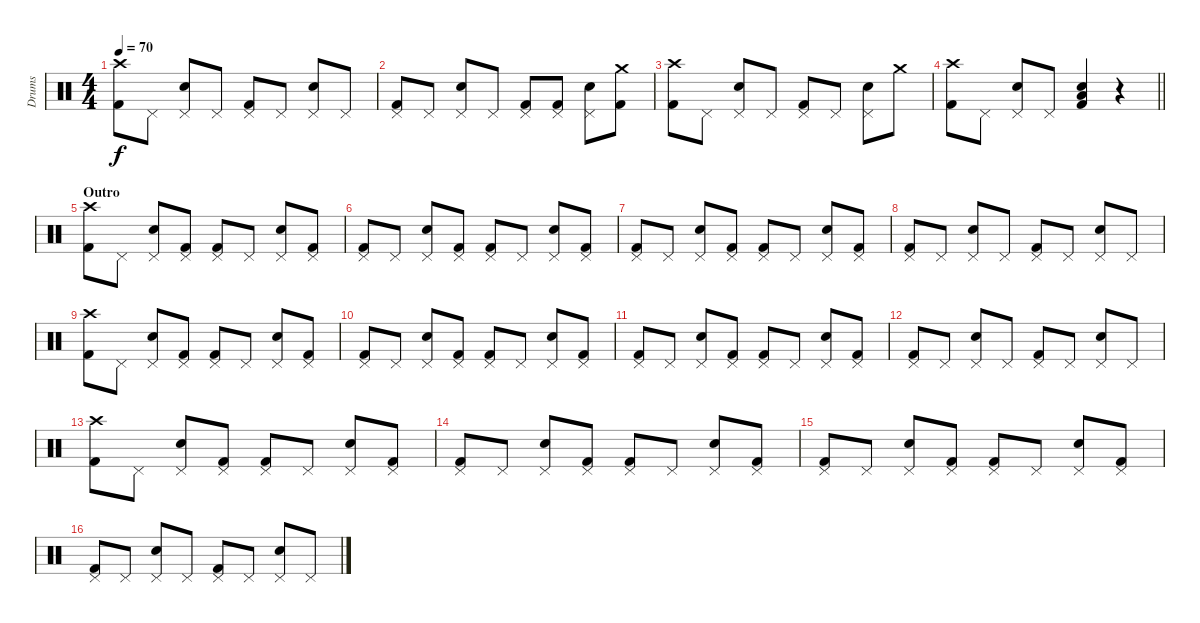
\track ("Drums" "Drums") {instrument percussion}
\staff {score}
\articulation defaults
\ts (4 4)
\tempo 70
\clef neutral
\ks c
("Crash high (hit)" "Kick (hit) 2").8{dy f} "Pedal Hi-Hat (hit)".8 ("Pedal Hi-Hat (hit)" "Snare (hit) 2").8 "Pedal Hi-Hat (hit)".8 ("Pedal Hi-Hat (hit)" "Kick (hit) 2").8 "Pedal Hi-Hat (hit)".8 ("Pedal Hi-Hat (hit)" "Snare (hit) 2").8 "Pedal Hi-Hat (hit)".8 |
("Pedal Hi-Hat (hit)" "Kick (hit) 2").8 "Pedal Hi-Hat (hit)".8 ("Pedal Hi-Hat (hit)" "Snare (hit) 2").8 "Pedal Hi-Hat (hit)".8 ("Pedal Hi-Hat (hit)" "Kick (hit) 2").8 ("Pedal Hi-Hat (hit)" "Kick (hit) 2").8 ("Pedal Hi-Hat (hit)" "Snare (hit) 2").8 ("Crash medium (hit)" "Kick (hit) 2").8 |
("Crash high (hit)" "Kick (hit) 2").8 "Pedal Hi-Hat (hit)".8 ("Pedal Hi-Hat (hit)" "Snare (hit) 2").8 "Pedal Hi-Hat (hit)".8 ("Pedal Hi-Hat (hit)" "Kick (hit) 2").8 "Pedal Hi-Hat (hit)".8 ("Pedal Hi-Hat (hit)" "Snare (hit) 2").8 "Crash medium (hit)".8 |
\barLineRight lightlight
("Crash high (hit)" "Kick (hit) 2").8 "Pedal Hi-Hat (hit)".8 ("Pedal Hi-Hat (hit)" "Snare (hit) 2").8 "Pedal Hi-Hat (hit)".8 ("Snare (hit) 2" "Low Floor Tom (hit)" "Kick (hit) 2").4 r.4 |
\section ("" "Outro")
("Crash high (hit)" "Kick (hit) 2").8 "Pedal Hi-Hat (hit)".8 ("Pedal Hi-Hat (hit)" "Snare (hit) 2").8 ("Pedal Hi-Hat (hit)" "Kick (hit) 2").8 ("Pedal Hi-Hat (hit)" "Kick (hit) 2").8 "Pedal Hi-Hat (hit)".8 ("Pedal Hi-Hat (hit)" "Snare (hit) 2").8 ("Pedal Hi-Hat (hit)" "Kick (hit) 2").8 |
("Pedal Hi-Hat (hit)" "Kick (hit) 2").8 "Pedal Hi-Hat (hit)".8 ("Pedal Hi-Hat (hit)" "Snare (hit) 2").8 ("Pedal Hi-Hat (hit)" "Kick (hit) 2").8 ("Pedal Hi-Hat (hit)" "Kick (hit) 2").8 "Pedal Hi-Hat (hit)".8 ("Pedal Hi-Hat (hit)" "Snare (hit) 2").8 ("Pedal Hi-Hat (hit)" "Kick (hit) 2").8 |
("Pedal Hi-Hat (hit)" "Kick (hit) 2").8 "Pedal Hi-Hat (hit)".8 ("Pedal Hi-Hat (hit)" "Snare (hit) 2").8 ("Pedal Hi-Hat (hit)" "Kick (hit) 2").8 ("Pedal Hi-Hat (hit)" "Kick (hit) 2").8 "Pedal Hi-Hat (hit)".8 ("Pedal Hi-Hat (hit)" "Snare (hit) 2").8 ("Pedal Hi-Hat (hit)" "Kick (hit) 2").8 |
("Pedal Hi-Hat (hit)" "Kick (hit) 2").8 "Pedal Hi-Hat (hit)".8 ("Pedal Hi-Hat (hit)" "Snare (hit) 2").8 "Pedal Hi-Hat (hit)".8 ("Pedal Hi-Hat (hit)" "Kick (hit) 2").8 "Pedal Hi-Hat (hit)".8 ("Pedal Hi-Hat (hit)" "Snare (hit) 2").8 "Pedal Hi-Hat (hit)".8 |
("Crash high (hit)" "Kick (hit) 2").8 "Pedal Hi-Hat (hit)".8 ("Pedal Hi-Hat (hit)" "Snare (hit) 2").8 ("Pedal Hi-Hat (hit)" "Kick (hit) 2").8 ("Pedal Hi-Hat (hit)" "Kick (hit) 2").8 "Pedal Hi-Hat (hit)".8 ("Pedal Hi-Hat (hit)" "Snare (hit) 2").8 ("Pedal Hi-Hat (hit)" "Kick (hit) 2").8 |
("Pedal Hi-Hat (hit)" "Kick (hit) 2").8 "Pedal Hi-Hat (hit)".8 ("Pedal Hi-Hat (hit)" "Snare (hit) 2").8 ("Pedal Hi-Hat (hit)" "Kick (hit) 2").8 ("Pedal Hi-Hat (hit)" "Kick (hit) 2").8 "Pedal Hi-Hat (hit)".8 ("Pedal Hi-Hat (hit)" "Snare (hit) 2").8 ("Pedal Hi-Hat (hit)" "Kick (hit) 2").8 |
("Pedal Hi-Hat (hit)" "Kick (hit) 2").8 "Pedal Hi-Hat (hit)".8 ("Pedal Hi-Hat (hit)" "Snare (hit) 2").8 ("Pedal Hi-Hat (hit)" "Kick (hit) 2").8 ("Pedal Hi-Hat (hit)" "Kick (hit) 2").8 "Pedal Hi-Hat (hit)".8 ("Pedal Hi-Hat (hit)" "Snare (hit) 2").8 ("Pedal Hi-Hat (hit)" "Kick (hit) 2").8 |
("Pedal Hi-Hat (hit)" "Kick (hit) 2").8 "Pedal Hi-Hat (hit)".8 ("Pedal Hi-Hat (hit)" "Snare (hit) 2").8 "Pedal Hi-Hat (hit)".8 ("Pedal Hi-Hat (hit)" "Kick (hit) 2").8 "Pedal Hi-Hat (hit)".8 ("Pedal Hi-Hat (hit)" "Snare (hit) 2").8 "Pedal Hi-Hat (hit)".8 |
("Crash high (hit)" "Kick (hit) 2").8 "Pedal Hi-Hat (hit)".8 ("Pedal Hi-Hat (hit)" "Snare (hit) 2").8 ("Pedal Hi-Hat (hit)" "Kick (hit) 2").8 ("Pedal Hi-Hat (hit)" "Kick (hit) 2").8 "Pedal Hi-Hat (hit)".8 ("Pedal Hi-Hat (hit)" "Snare (hit) 2").8 ("Pedal Hi-Hat (hit)" "Kick (hit) 2").8 |
("Pedal Hi-Hat (hit)" "Kick (hit) 2").8 "Pedal Hi-Hat (hit)".8 ("Pedal Hi-Hat (hit)" "Snare (hit) 2").8 ("Pedal Hi-Hat (hit)" "Kick (hit) 2").8 ("Pedal Hi-Hat (hit)" "Kick (hit) 2").8 "Pedal Hi-Hat (hit)".8 ("Pedal Hi-Hat (hit)" "Snare (hit) 2").8 ("Pedal Hi-Hat (hit)" "Kick (hit) 2").8 |
("Pedal Hi-Hat (hit)" "Kick (hit) 2").8 "Pedal Hi-Hat (hit)".8 ("Pedal Hi-Hat (hit)" "Snare (hit) 2").8 ("Pedal Hi-Hat (hit)" "Kick (hit) 2").8 ("Pedal Hi-Hat (hit)" "Kick (hit) 2").8 "Pedal Hi-Hat (hit)".8 ("Pedal Hi-Hat (hit)" "Snare (hit) 2").8 ("Pedal Hi-Hat (hit)" "Kick (hit) 2").8 |
("Pedal Hi-Hat (hit)" "Kick (hit) 2").8 "Pedal Hi-Hat (hit)".8 ("Pedal Hi-Hat (hit)" "Snare (hit) 2").8 "Pedal Hi-Hat (hit)".8 ("Pedal Hi-Hat (hit)" "Kick (hit) 2").8 "Pedal Hi-Hat (hit)".8 ("Pedal Hi-Hat (hit)" "Snare (hit) 2").8 "Pedal Hi-Hat (hit)".8
